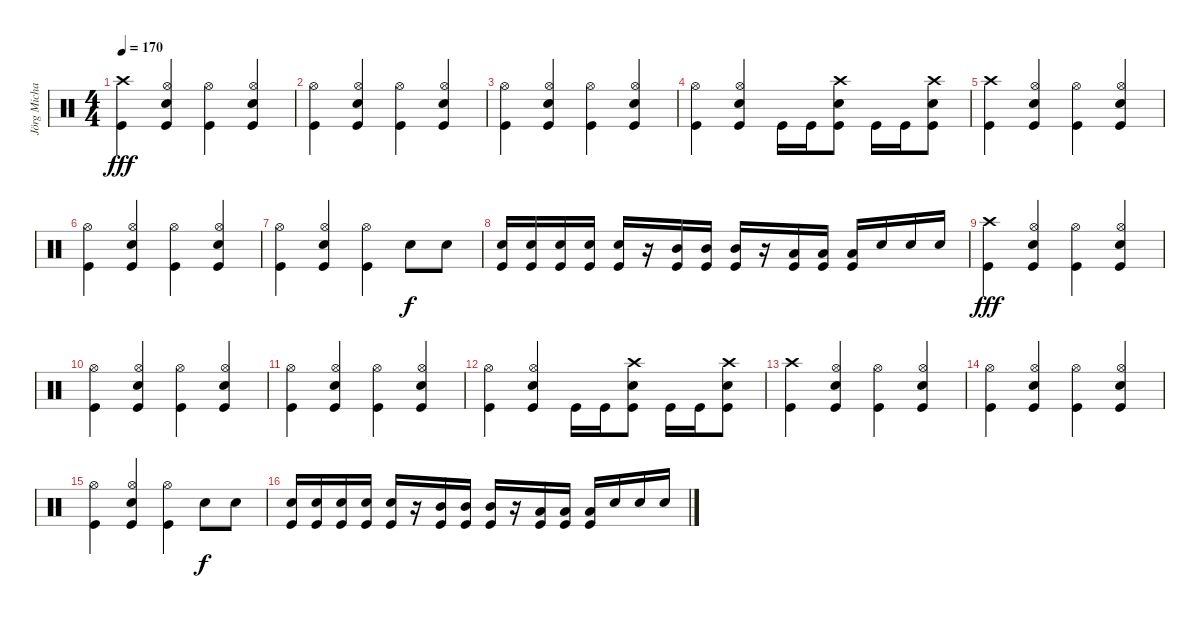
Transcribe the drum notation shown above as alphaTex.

\track ("Jörg Michael" "Jörg Micha") {instrument percussion}
\staff {score}
\articulation defaults
\ts (4 4)
\tempo 170
\clef neutral
\ks c
("Crash high (hit)" "Kick (hit)").4{dy fff} ("Hi-Hat (open)" "Electric Snare (hit)" "Kick (hit)").4 ("Hi-Hat (open)" "Kick (hit)").4 ("Hi-Hat (open)" "Electric Snare (hit)" "Kick (hit)").4 |
("Hi-Hat (open)" "Kick (hit)").4 ("Hi-Hat (open)" "Electric Snare (hit)" "Kick (hit)").4 ("Hi-Hat (open)" "Kick (hit)").4 ("Hi-Hat (open)" "Electric Snare (hit)" "Kick (hit)").4 |
("Hi-Hat (open)" "Kick (hit)").4 ("Hi-Hat (open)" "Electric Snare (hit)" "Kick (hit)").4 ("Hi-Hat (open)" "Kick (hit)").4 ("Hi-Hat (open)" "Electric Snare (hit)" "Kick (hit)").4 |
("Hi-Hat (open)" "Kick (hit)").4 ("Hi-Hat (open)" "Electric Snare (hit)" "Kick (hit)").4 "Kick (hit)".16 "Kick (hit)".16 ("Crash high (hit)" "Electric Snare (hit)" "Kick (hit)").8 "Kick (hit)".16 "Kick (hit)".16 ("Crash high (hit)" "Electric Snare (hit)" "Kick (hit)").8 |
("Crash high (hit)" "Kick (hit)").4 ("Hi-Hat (open)" "Electric Snare (hit)" "Kick (hit)").4 ("Hi-Hat (open)" "Kick (hit)").4 ("Hi-Hat (open)" "Electric Snare (hit)" "Kick (hit)").4 |
("Hi-Hat (open)" "Kick (hit)").4 ("Hi-Hat (open)" "Electric Snare (hit)" "Kick (hit)").4 ("Hi-Hat (open)" "Kick (hit)").4 ("Hi-Hat (open)" "Electric Snare (hit)" "Kick (hit)").4 |
("Hi-Hat (open)" "Kick (hit)").4 ("Hi-Hat (open)" "Electric Snare (hit)" "Kick (hit)").4 ("Hi-Hat (open)" "Kick (hit)").4 "Electric Snare (hit)".8{dy f} "Electric Snare (hit)".8 |
("Electric Snare (hit)" "Kick (hit)").16 ("Electric Snare (hit)" "Kick (hit)").16 ("Electric Snare (hit)" "Kick (hit)").16 ("Electric Snare (hit)" "Kick (hit)").16 ("Electric Snare (hit)" "Kick (hit)").16 r.16 ("Mid Tom (hit)" "Kick (hit)").16 ("Mid Tom (hit)" "Kick (hit)").16 ("Mid Tom (hit)" "Kick (hit)").16 r.16 ("Low Tom (hit)" "Kick (hit)").16 ("Low Tom (hit)" "Kick (hit)").16 ("Low Tom (hit)" "Kick (hit)").16 "Electric Snare (hit)".16 "Electric Snare (hit)".16 "Electric Snare (hit)".16 |
("Crash high (hit)" "Kick (hit)").4{dy fff} ("Hi-Hat (open)" "Electric Snare (hit)" "Kick (hit)").4 ("Hi-Hat (open)" "Kick (hit)").4 ("Hi-Hat (open)" "Electric Snare (hit)" "Kick (hit)").4 |
("Hi-Hat (open)" "Kick (hit)").4 ("Hi-Hat (open)" "Electric Snare (hit)" "Kick (hit)").4 ("Hi-Hat (open)" "Kick (hit)").4 ("Hi-Hat (open)" "Electric Snare (hit)" "Kick (hit)").4 |
("Hi-Hat (open)" "Kick (hit)").4 ("Hi-Hat (open)" "Electric Snare (hit)" "Kick (hit)").4 ("Hi-Hat (open)" "Kick (hit)").4 ("Hi-Hat (open)" "Electric Snare (hit)" "Kick (hit)").4 |
("Hi-Hat (open)" "Kick (hit)").4 ("Hi-Hat (open)" "Electric Snare (hit)" "Kick (hit)").4 "Kick (hit)".16 "Kick (hit)".16 ("Crash high (hit)" "Electric Snare (hit)" "Kick (hit)").8 "Kick (hit)".16 "Kick (hit)".16 ("Crash high (hit)" "Electric Snare (hit)" "Kick (hit)").8 |
("Crash high (hit)" "Kick (hit)").4 ("Hi-Hat (open)" "Electric Snare (hit)" "Kick (hit)").4 ("Hi-Hat (open)" "Kick (hit)").4 ("Hi-Hat (open)" "Electric Snare (hit)" "Kick (hit)").4 |
("Hi-Hat (open)" "Kick (hit)").4 ("Hi-Hat (open)" "Electric Snare (hit)" "Kick (hit)").4 ("Hi-Hat (open)" "Kick (hit)").4 ("Hi-Hat (open)" "Electric Snare (hit)" "Kick (hit)").4 |
("Hi-Hat (open)" "Kick (hit)").4 ("Hi-Hat (open)" "Electric Snare (hit)" "Kick (hit)").4 ("Hi-Hat (open)" "Kick (hit)").4 "Electric Snare (hit)".8{dy f} "Electric Snare (hit)".8 |
("Electric Snare (hit)" "Kick (hit)").16 ("Electric Snare (hit)" "Kick (hit)").16 ("Electric Snare (hit)" "Kick (hit)").16 ("Electric Snare (hit)" "Kick (hit)").16 ("Electric Snare (hit)" "Kick (hit)").16 r.16 ("Mid Tom (hit)" "Kick (hit)").16 ("Mid Tom (hit)" "Kick (hit)").16 ("Mid Tom (hit)" "Kick (hit)").16 r.16 ("Low Tom (hit)" "Kick (hit)").16 ("Low Tom (hit)" "Kick (hit)").16 ("Low Tom (hit)" "Kick (hit)").16 "Electric Snare (hit)".16 "Electric Snare (hit)".16 "Electric Snare (hit)".16
